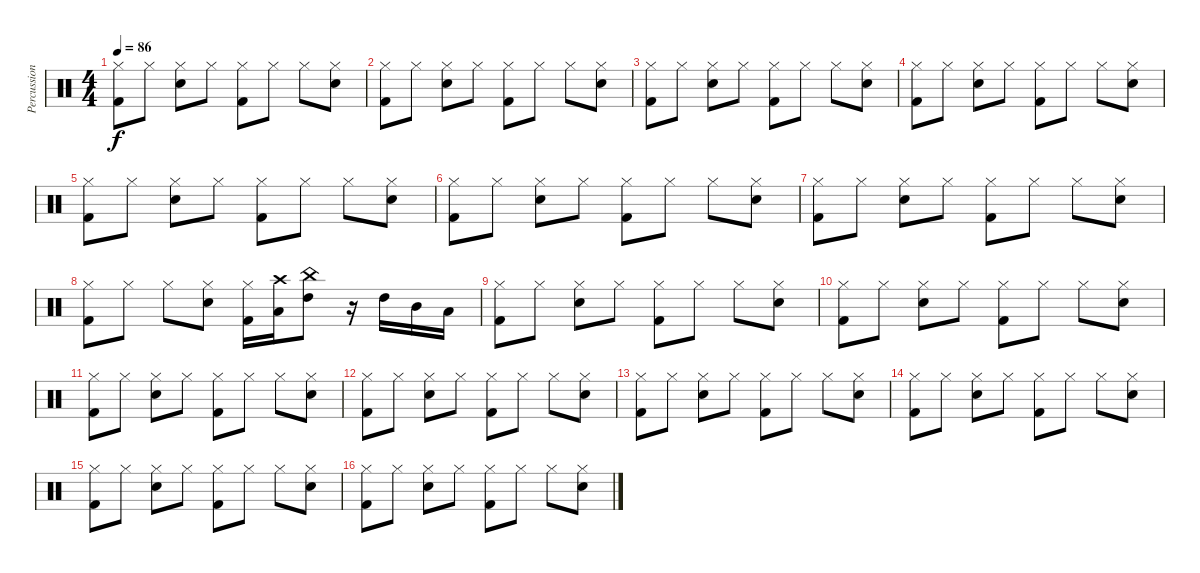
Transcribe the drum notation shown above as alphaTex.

\track ("Percussions" "Percussion") {instrument percussion}
\staff {score}
\articulation defaults
\ts (4 4)
\tempo 86
\clef neutral
\ks c
("Hi-Hat (closed)" "Kick (hit) 2").8{dy f} "Hi-Hat (closed)".8 ("Hi-Hat (closed)" "Snare (hit) 2").8 "Hi-Hat (closed)".8 ("Hi-Hat (closed)" "Kick (hit) 2").8 "Hi-Hat (closed)".8 "Hi-Hat (closed)".8 ("Hi-Hat (closed)" "Snare (hit) 2").8 |
("Hi-Hat (closed)" "Kick (hit) 2").8 "Hi-Hat (closed)".8 ("Hi-Hat (closed)" "Snare (hit) 2").8 "Hi-Hat (closed)".8 ("Hi-Hat (closed)" "Kick (hit) 2").8 "Hi-Hat (closed)".8 "Hi-Hat (closed)".8 ("Hi-Hat (closed)" "Snare (hit) 2").8 |
("Hi-Hat (closed)" "Kick (hit) 2").8 "Hi-Hat (closed)".8 ("Hi-Hat (closed)" "Snare (hit) 2").8 "Hi-Hat (closed)".8 ("Hi-Hat (closed)" "Kick (hit) 2").8 "Hi-Hat (closed)".8 "Hi-Hat (closed)".8 ("Hi-Hat (closed)" "Snare (hit) 2").8 |
("Hi-Hat (closed)" "Kick (hit) 2").8 "Hi-Hat (closed)".8 ("Hi-Hat (closed)" "Snare (hit) 2").8 "Hi-Hat (closed)".8 ("Hi-Hat (closed)" "Kick (hit) 2").8 "Hi-Hat (closed)".8 "Hi-Hat (closed)".8 ("Hi-Hat (closed)" "Snare (hit) 2").8 |
("Hi-Hat (closed)" "Kick (hit) 2").8 "Hi-Hat (closed)".8 ("Hi-Hat (closed)" "Snare (hit) 2").8 "Hi-Hat (closed)".8 ("Hi-Hat (closed)" "Kick (hit) 2").8 "Hi-Hat (closed)".8 "Hi-Hat (closed)".8 ("Hi-Hat (closed)" "Snare (hit) 2").8 |
("Hi-Hat (closed)" "Kick (hit) 2").8 "Hi-Hat (closed)".8 ("Hi-Hat (closed)" "Snare (hit) 2").8 "Hi-Hat (closed)".8 ("Hi-Hat (closed)" "Kick (hit) 2").8 "Hi-Hat (closed)".8 "Hi-Hat (closed)".8 ("Hi-Hat (closed)" "Snare (hit) 2").8 |
("Hi-Hat (closed)" "Kick (hit) 2").8 "Hi-Hat (closed)".8 ("Hi-Hat (closed)" "Snare (hit) 2").8 "Hi-Hat (closed)".8 ("Hi-Hat (closed)" "Kick (hit) 2").8 "Hi-Hat (closed)".8 "Hi-Hat (closed)".8 ("Hi-Hat (closed)" "Snare (hit) 2").8 |
("Hi-Hat (closed)" "Kick (hit) 2").8 "Hi-Hat (closed)".8 "Hi-Hat (closed)".8 ("Hi-Hat (closed)" "Snare (hit) 2").8 ("Hi-Hat (closed)" "Kick (hit) 2").16 ("Crash high (hit)" "Low Tom (hit)").16 ("China (hit)" "High Tom (hit)").8 r.16 "High Tom (hit)".16 "Mid Tom (hit)".16 "Low Tom (hit)".16 |
("Hi-Hat (closed)" "Kick (hit) 2").8 "Hi-Hat (closed)".8 ("Hi-Hat (closed)" "Snare (hit) 2").8 "Hi-Hat (closed)".8 ("Hi-Hat (closed)" "Kick (hit) 2").8 "Hi-Hat (closed)".8 "Hi-Hat (closed)".8 ("Hi-Hat (closed)" "Snare (hit) 2").8 |
("Hi-Hat (closed)" "Kick (hit) 2").8 "Hi-Hat (closed)".8 ("Hi-Hat (closed)" "Snare (hit) 2").8 "Hi-Hat (closed)".8 ("Hi-Hat (closed)" "Kick (hit) 2").8 "Hi-Hat (closed)".8 "Hi-Hat (closed)".8 ("Hi-Hat (closed)" "Snare (hit) 2").8 |
("Hi-Hat (closed)" "Kick (hit) 2").8 "Hi-Hat (closed)".8 ("Hi-Hat (closed)" "Snare (hit) 2").8 "Hi-Hat (closed)".8 ("Hi-Hat (closed)" "Kick (hit) 2").8 "Hi-Hat (closed)".8 "Hi-Hat (closed)".8 ("Hi-Hat (closed)" "Snare (hit) 2").8 |
("Hi-Hat (closed)" "Kick (hit) 2").8 "Hi-Hat (closed)".8 ("Hi-Hat (closed)" "Snare (hit) 2").8 "Hi-Hat (closed)".8 ("Hi-Hat (closed)" "Kick (hit) 2").8 "Hi-Hat (closed)".8 "Hi-Hat (closed)".8 ("Hi-Hat (closed)" "Snare (hit) 2").8 |
("Hi-Hat (closed)" "Kick (hit) 2").8 "Hi-Hat (closed)".8 ("Hi-Hat (closed)" "Snare (hit) 2").8 "Hi-Hat (closed)".8 ("Hi-Hat (closed)" "Kick (hit) 2").8 "Hi-Hat (closed)".8 "Hi-Hat (closed)".8 ("Hi-Hat (closed)" "Snare (hit) 2").8 |
("Hi-Hat (closed)" "Kick (hit) 2").8 "Hi-Hat (closed)".8 ("Hi-Hat (closed)" "Snare (hit) 2").8 "Hi-Hat (closed)".8 ("Hi-Hat (closed)" "Kick (hit) 2").8 "Hi-Hat (closed)".8 "Hi-Hat (closed)".8 ("Hi-Hat (closed)" "Snare (hit) 2").8 |
("Hi-Hat (closed)" "Kick (hit) 2").8 "Hi-Hat (closed)".8 ("Hi-Hat (closed)" "Snare (hit) 2").8 "Hi-Hat (closed)".8 ("Hi-Hat (closed)" "Kick (hit) 2").8 "Hi-Hat (closed)".8 "Hi-Hat (closed)".8 ("Hi-Hat (closed)" "Snare (hit) 2").8 |
("Hi-Hat (closed)" "Kick (hit) 2").8 "Hi-Hat (closed)".8 ("Hi-Hat (closed)" "Snare (hit) 2").8 "Hi-Hat (closed)".8 ("Hi-Hat (closed)" "Kick (hit) 2").8 "Hi-Hat (closed)".8 "Hi-Hat (closed)".8 ("Hi-Hat (closed)" "Snare (hit) 2").8
